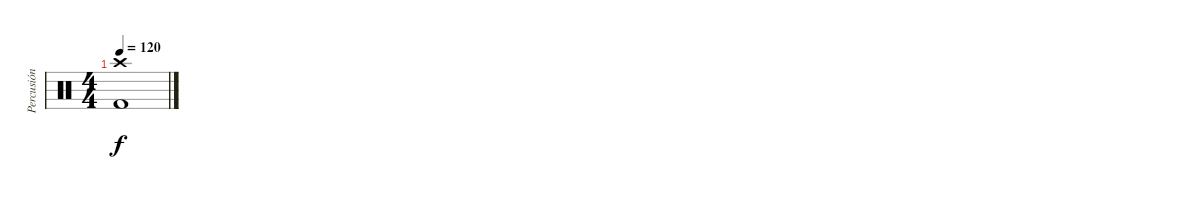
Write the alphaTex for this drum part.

\track ("Percusión" "Percusión") {instrument percussion}
\staff {score}
\articulation defaults
\ts (4 4)
\tempo 120
\clef neutral
\ks c
("Crash high (hit)" "Kick (hit) 2").1{dy f}
